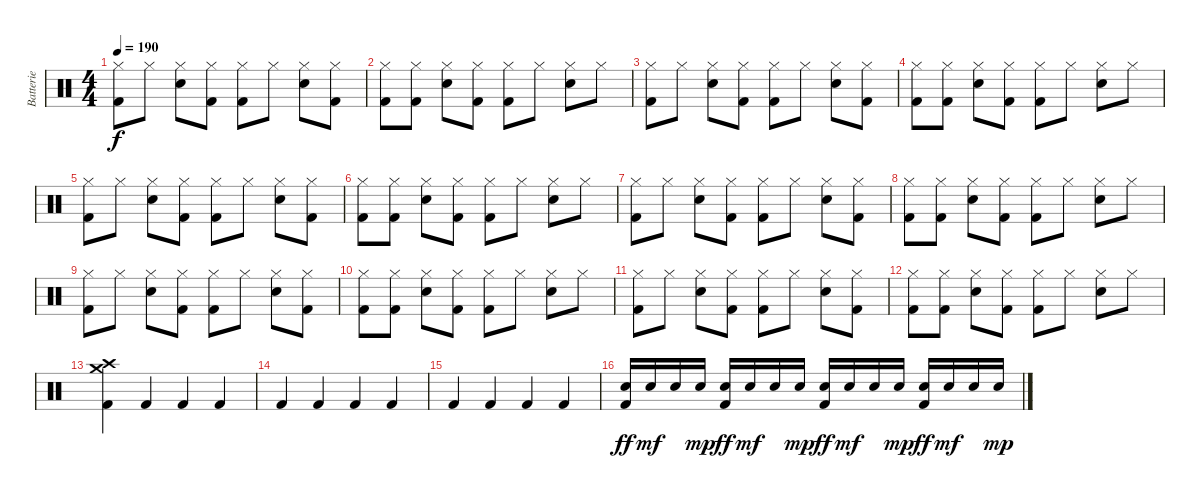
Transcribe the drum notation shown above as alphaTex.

\track ("Batterie" "Batterie") {instrument percussion}
\staff {score}
\articulation defaults
\ts (4 4)
\tempo 190
\clef neutral
\ks c
("Hi-Hat (closed)" "Kick (hit) 2").8{dy f} "Hi-Hat (closed)".8 ("Hi-Hat (closed)" "Electric Snare (hit)").8 ("Hi-Hat (closed)" "Kick (hit) 2").8 ("Hi-Hat (closed)" "Kick (hit) 2").8 "Hi-Hat (closed)".8 ("Hi-Hat (closed)" "Electric Snare (hit)").8 ("Hi-Hat (closed)" "Kick (hit) 2").8 |
("Hi-Hat (closed)" "Kick (hit) 2").8 ("Hi-Hat (closed)" "Kick (hit) 2").8 ("Hi-Hat (closed)" "Electric Snare (hit)").8 ("Hi-Hat (closed)" "Kick (hit) 2").8 ("Hi-Hat (closed)" "Kick (hit) 2").8 "Hi-Hat (closed)".8 ("Hi-Hat (closed)" "Electric Snare (hit)").8 "Hi-Hat (closed)".8 |
("Hi-Hat (closed)" "Kick (hit) 2").8 "Hi-Hat (closed)".8 ("Hi-Hat (closed)" "Electric Snare (hit)").8 ("Hi-Hat (closed)" "Kick (hit) 2").8 ("Hi-Hat (closed)" "Kick (hit) 2").8 "Hi-Hat (closed)".8 ("Hi-Hat (closed)" "Electric Snare (hit)").8 ("Hi-Hat (closed)" "Kick (hit) 2").8 |
("Hi-Hat (closed)" "Kick (hit) 2").8 ("Hi-Hat (closed)" "Kick (hit) 2").8 ("Hi-Hat (closed)" "Electric Snare (hit)").8 ("Hi-Hat (closed)" "Kick (hit) 2").8 ("Hi-Hat (closed)" "Kick (hit) 2").8 "Hi-Hat (closed)".8 ("Hi-Hat (closed)" "Electric Snare (hit)").8 "Hi-Hat (closed)".8 |
("Hi-Hat (closed)" "Kick (hit) 2").8 "Hi-Hat (closed)".8 ("Hi-Hat (closed)" "Electric Snare (hit)").8 ("Hi-Hat (closed)" "Kick (hit) 2").8 ("Hi-Hat (closed)" "Kick (hit) 2").8 "Hi-Hat (closed)".8 ("Hi-Hat (closed)" "Electric Snare (hit)").8 ("Hi-Hat (closed)" "Kick (hit) 2").8 |
("Hi-Hat (closed)" "Kick (hit) 2").8 ("Hi-Hat (closed)" "Kick (hit) 2").8 ("Hi-Hat (closed)" "Electric Snare (hit)").8 ("Hi-Hat (closed)" "Kick (hit) 2").8 ("Hi-Hat (closed)" "Kick (hit) 2").8 "Hi-Hat (closed)".8 ("Hi-Hat (closed)" "Electric Snare (hit)").8 "Hi-Hat (closed)".8 |
("Hi-Hat (closed)" "Kick (hit) 2").8 "Hi-Hat (closed)".8 ("Hi-Hat (closed)" "Electric Snare (hit)").8 ("Hi-Hat (closed)" "Kick (hit) 2").8 ("Hi-Hat (closed)" "Kick (hit) 2").8 "Hi-Hat (closed)".8 ("Hi-Hat (closed)" "Electric Snare (hit)").8 ("Hi-Hat (closed)" "Kick (hit) 2").8 |
("Hi-Hat (closed)" "Kick (hit) 2").8 ("Hi-Hat (closed)" "Kick (hit) 2").8 ("Hi-Hat (closed)" "Electric Snare (hit)").8 ("Hi-Hat (closed)" "Kick (hit) 2").8 ("Hi-Hat (closed)" "Kick (hit) 2").8 "Hi-Hat (closed)".8 ("Hi-Hat (closed)" "Electric Snare (hit)").8 "Hi-Hat (closed)".8 |
("Hi-Hat (closed)" "Kick (hit) 2").8 "Hi-Hat (closed)".8 ("Hi-Hat (closed)" "Electric Snare (hit)").8 ("Hi-Hat (closed)" "Kick (hit) 2").8 ("Hi-Hat (closed)" "Kick (hit) 2").8 "Hi-Hat (closed)".8 ("Hi-Hat (closed)" "Electric Snare (hit)").8 ("Hi-Hat (closed)" "Kick (hit) 2").8 |
("Hi-Hat (closed)" "Kick (hit) 2").8 ("Hi-Hat (closed)" "Kick (hit) 2").8 ("Hi-Hat (closed)" "Electric Snare (hit)").8 ("Hi-Hat (closed)" "Kick (hit) 2").8 ("Hi-Hat (closed)" "Kick (hit) 2").8 "Hi-Hat (closed)".8 ("Hi-Hat (closed)" "Electric Snare (hit)").8 "Hi-Hat (closed)".8 |
("Hi-Hat (closed)" "Kick (hit) 2").8 "Hi-Hat (closed)".8 ("Hi-Hat (closed)" "Electric Snare (hit)").8 ("Hi-Hat (closed)" "Kick (hit) 2").8 ("Hi-Hat (closed)" "Kick (hit) 2").8 "Hi-Hat (closed)".8 ("Hi-Hat (closed)" "Electric Snare (hit)").8 ("Hi-Hat (closed)" "Kick (hit) 2").8 |
("Hi-Hat (closed)" "Kick (hit) 2").8 ("Hi-Hat (closed)" "Kick (hit) 2").8 ("Hi-Hat (closed)" "Electric Snare (hit)").8 ("Hi-Hat (closed)" "Kick (hit) 2").8 ("Hi-Hat (closed)" "Kick (hit) 2").8 "Hi-Hat (closed)".8 ("Hi-Hat (closed)" "Electric Snare (hit)").8 "Hi-Hat (closed)".8 |
("Crash high (hit)" "Crash medium (hit)" "Kick (hit) 2").4 "Kick (hit) 2".4 "Kick (hit) 2".4 "Kick (hit) 2".4 |
"Kick (hit) 2".4 "Kick (hit) 2".4 "Kick (hit) 2".4 "Kick (hit) 2".4 |
"Kick (hit) 2".4 "Kick (hit) 2".4 "Kick (hit) 2".4 "Kick (hit) 2".4 |
("Electric Snare (hit)" "Kick (hit) 2").16{dy ff} "Electric Snare (hit)".16{dy mf} "Electric Snare (hit)".16 "Electric Snare (hit)".16{dy mp} ("Electric Snare (hit)" "Kick (hit) 2").16{dy ff} "Electric Snare (hit)".16{dy mf} "Electric Snare (hit)".16 "Electric Snare (hit)".16{dy mp} ("Electric Snare (hit)" "Kick (hit) 2").16{dy ff} "Electric Snare (hit)".16{dy mf} "Electric Snare (hit)".16 "Electric Snare (hit)".16{dy mp} ("Electric Snare (hit)" "Kick (hit) 2").16{dy ff} "Electric Snare (hit)".16{dy mf} "Electric Snare (hit)".16 "Electric Snare (hit)".16{dy mp}
